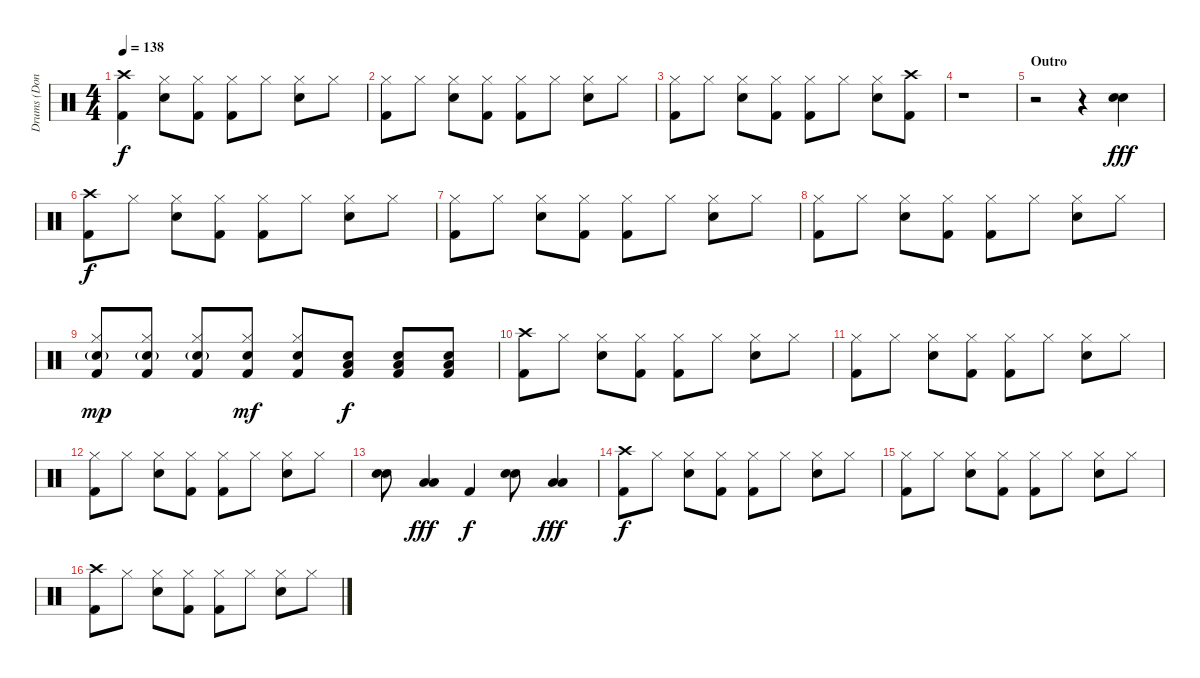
\track ("Drums (Don Henley)" "Drums (Don") {instrument percussion}
\staff {score}
\articulation defaults
\ts (4 4)
\tempo 138
\clef neutral
\ks c
("Crash high (hit)" "Kick (hit) 2").4{dy f} ("Hi-Hat (closed)" "Snare (hit) 2").8 ("Hi-Hat (closed)" "Kick (hit) 2").8 ("Hi-Hat (closed)" "Kick (hit) 2").8 "Hi-Hat (closed)".8 ("Hi-Hat (closed)" "Snare (hit) 2").8 "Hi-Hat (closed)".8 |
("Hi-Hat (closed)" "Kick (hit) 2").8 "Hi-Hat (closed)".8 ("Hi-Hat (closed)" "Snare (hit) 2").8 ("Hi-Hat (closed)" "Kick (hit) 2").8 ("Hi-Hat (closed)" "Kick (hit) 2").8 "Hi-Hat (closed)".8 ("Hi-Hat (closed)" "Snare (hit) 2").8 "Hi-Hat (closed)".8 |
("Hi-Hat (closed)" "Kick (hit) 2").8 "Hi-Hat (closed)".8 ("Hi-Hat (closed)" "Snare (hit) 2").8 ("Hi-Hat (closed)" "Kick (hit) 2").8 ("Hi-Hat (closed)" "Kick (hit) 2").8 "Hi-Hat (closed)".8 ("Hi-Hat (closed)" "Snare (hit) 2").8 ("Crash high (hit)" "Kick (hit) 2").8 |
r.1 |
\section ("" "Outro")
r.2 r.4 ("Snare (hit) 2" "Snare (hit) 2").4{dy fff} |
("Crash high (hit)" "Kick (hit) 2").8{dy f} "Hi-Hat (closed)".8 ("Hi-Hat (closed)" "Snare (hit) 2").8 ("Hi-Hat (closed)" "Kick (hit) 2").8 ("Hi-Hat (closed)" "Kick (hit) 2").8 "Hi-Hat (closed)".8 ("Hi-Hat (closed)" "Snare (hit) 2").8 "Hi-Hat (closed)".8 |
("Hi-Hat (closed)" "Kick (hit) 2").8 "Hi-Hat (closed)".8 ("Hi-Hat (closed)" "Snare (hit) 2").8 ("Hi-Hat (closed)" "Kick (hit) 2").8 ("Hi-Hat (closed)" "Kick (hit) 2").8 "Hi-Hat (closed)".8 ("Hi-Hat (closed)" "Snare (hit) 2").8 "Hi-Hat (closed)".8 |
("Hi-Hat (closed)" "Kick (hit) 2").8 "Hi-Hat (closed)".8 ("Hi-Hat (closed)" "Snare (hit) 2").8 ("Hi-Hat (closed)" "Kick (hit) 2").8 ("Hi-Hat (closed)" "Kick (hit) 2").8 "Hi-Hat (closed)".8 ("Hi-Hat (closed)" "Snare (hit) 2").8 "Hi-Hat (closed)".8 |
("Hi-Hat (closed)" "Snare (hit) 2"{g} "Kick (hit) 2").8{dy mp} ("Hi-Hat (closed)" "Snare (hit) 2"{g} "Kick (hit) 2").8 ("Hi-Hat (closed)" "Snare (hit) 2"{g} "Kick (hit) 2").8 ("Hi-Hat (closed)" "Snare (hit) 2" "Kick (hit) 2").8{dy mf} ("Hi-Hat (closed)" "Snare (hit) 2" "Kick (hit) 2").8 ("Snare (hit) 2" "Low Floor Tom (hit)" "Kick (hit) 2").8{dy f} ("Snare (hit) 2" "Low Floor Tom (hit)" "Kick (hit) 2").8 ("Snare (hit) 2" "Low Floor Tom (hit)" "Kick (hit) 2").8 |
("Crash high (hit)" "Kick (hit) 2").8 "Hi-Hat (closed)".8 ("Hi-Hat (closed)" "Snare (hit) 2").8 ("Hi-Hat (closed)" "Kick (hit) 2").8 ("Hi-Hat (closed)" "Kick (hit) 2").8 "Hi-Hat (closed)".8 ("Hi-Hat (closed)" "Snare (hit) 2").8 "Hi-Hat (closed)".8 |
("Hi-Hat (closed)" "Kick (hit) 2").8 "Hi-Hat (closed)".8 ("Hi-Hat (closed)" "Snare (hit) 2").8 ("Hi-Hat (closed)" "Kick (hit) 2").8 ("Hi-Hat (closed)" "Kick (hit) 2").8 "Hi-Hat (closed)".8 ("Hi-Hat (closed)" "Snare (hit) 2").8 "Hi-Hat (closed)".8 |
("Hi-Hat (closed)" "Kick (hit) 2").8 "Hi-Hat (closed)".8 ("Hi-Hat (closed)" "Snare (hit) 2").8 ("Hi-Hat (closed)" "Kick (hit) 2").8 ("Hi-Hat (closed)" "Kick (hit) 2").8 "Hi-Hat (closed)".8 ("Hi-Hat (closed)" "Snare (hit) 2").8 "Hi-Hat (closed)".8 |
("Snare (hit) 2" "Snare (hit) 2").8 ("Low Floor Tom (hit)" "Low Floor Tom (hit)").4{dy fff} "Kick (hit) 2".4{dy f} ("Snare (hit) 2" "Snare (hit) 2").8 ("Low Floor Tom (hit)" "Low Floor Tom (hit)").4{dy fff} |
("Crash high (hit)" "Kick (hit) 2").8{dy f} "Hi-Hat (closed)".8 ("Hi-Hat (closed)" "Snare (hit) 2").8 ("Hi-Hat (closed)" "Kick (hit) 2").8 ("Hi-Hat (closed)" "Kick (hit) 2").8 "Hi-Hat (closed)".8 ("Hi-Hat (closed)" "Snare (hit) 2").8 "Hi-Hat (closed)".8 |
("Hi-Hat (closed)" "Kick (hit) 2").8 "Hi-Hat (closed)".8 ("Hi-Hat (closed)" "Snare (hit) 2").8 ("Hi-Hat (closed)" "Kick (hit) 2").8 ("Hi-Hat (closed)" "Kick (hit) 2").8 "Hi-Hat (closed)".8 ("Hi-Hat (closed)" "Snare (hit) 2").8 "Hi-Hat (closed)".8 |
("Crash high (hit)" "Kick (hit) 2").8 "Hi-Hat (closed)".8 ("Hi-Hat (closed)" "Snare (hit) 2").8 ("Hi-Hat (closed)" "Kick (hit) 2").8 ("Hi-Hat (closed)" "Kick (hit) 2").8 "Hi-Hat (closed)".8 ("Hi-Hat (closed)" "Snare (hit) 2").8 "Hi-Hat (closed)".8
